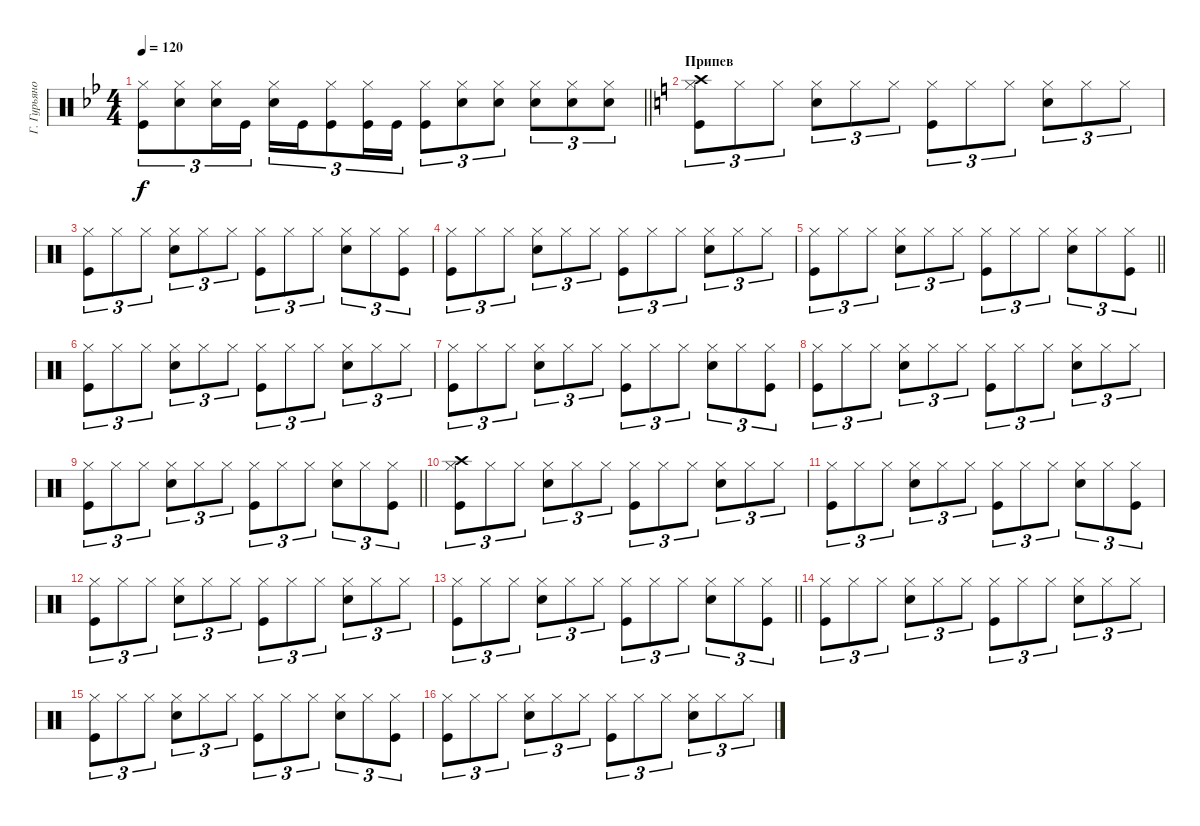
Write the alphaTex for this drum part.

\track ("Г. Гурьянов" "Г. Гурьяно") {instrument percussion}
\staff
\articulation defaults
\ts (4 4)
\tempo 120
\clef neutral
\barLineRight lightlight
\ks gminor
("Hi-Hat (closed)" "Kick (hit)").8{tu (3 2) dy f} ("Hi-Hat (closed)" "Snare (hit) 2").8{tu (3 2)} ("Hi-Hat (closed)" "Snare (hit) 2").16{tu (3 2)} "Kick (hit)".16{tu (3 2)} ("Hi-Hat (closed)" "Snare (hit) 2").16{tu (3 2)} "Kick (hit)".16{tu (3 2)} ("Hi-Hat (closed)" "Kick (hit)").8{tu (3 2)} ("Hi-Hat (closed)" "Kick (hit)").16{tu (3 2)} "Kick (hit)".16{tu (3 2)} ("Hi-Hat (closed)" "Kick (hit)").8{tu (3 2)} ("Hi-Hat (closed)" "Snare (hit) 2").8{tu (3 2)} ("Hi-Hat (closed)" "Snare (hit) 2").8{tu (3 2)} ("Hi-Hat (closed)" "Snare (hit) 2").8{tu (3 2)} ("Hi-Hat (closed)" "Snare (hit) 2").8{tu (3 2)} ("Hi-Hat (closed)" "Snare (hit) 2").8{tu (3 2)} |
\section ("" "Припев")
\ks c
("Hi-Hat (closed)" "Crash high (hit)" "Kick (hit)").8{tu (3 2)} "Hi-Hat (closed)".8{tu (3 2)} "Hi-Hat (closed)".8{tu (3 2)} ("Hi-Hat (closed)" "Snare (hit) 2").8{tu (3 2)} "Hi-Hat (closed)".8{tu (3 2)} "Hi-Hat (closed)".8{tu (3 2)} ("Hi-Hat (closed)" "Kick (hit)").8{tu (3 2)} "Hi-Hat (closed)".8{tu (3 2)} "Hi-Hat (closed)".8{tu (3 2)} ("Hi-Hat (closed)" "Snare (hit) 2").8{tu (3 2)} "Hi-Hat (closed)".8{tu (3 2)} "Hi-Hat (closed)".8{tu (3 2)} |
("Hi-Hat (closed)" "Kick (hit)").8{tu (3 2)} "Hi-Hat (closed)".8{tu (3 2)} "Hi-Hat (closed)".8{tu (3 2)} ("Hi-Hat (closed)" "Snare (hit) 2").8{tu (3 2)} "Hi-Hat (closed)".8{tu (3 2)} "Hi-Hat (closed)".8{tu (3 2)} ("Hi-Hat (closed)" "Kick (hit)").8{tu (3 2)} "Hi-Hat (closed)".8{tu (3 2)} "Hi-Hat (closed)".8{tu (3 2)} ("Hi-Hat (closed)" "Snare (hit) 2").8{tu (3 2)} "Hi-Hat (closed)".8{tu (3 2)} ("Hi-Hat (closed)" "Kick (hit)").8{tu (3 2)} |
("Hi-Hat (closed)" "Kick (hit)").8{tu (3 2)} "Hi-Hat (closed)".8{tu (3 2)} "Hi-Hat (closed)".8{tu (3 2)} ("Hi-Hat (closed)" "Snare (hit) 2").8{tu (3 2)} "Hi-Hat (closed)".8{tu (3 2)} "Hi-Hat (closed)".8{tu (3 2)} ("Hi-Hat (closed)" "Kick (hit)").8{tu (3 2)} "Hi-Hat (closed)".8{tu (3 2)} "Hi-Hat (closed)".8{tu (3 2)} ("Hi-Hat (closed)" "Snare (hit) 2").8{tu (3 2)} "Hi-Hat (closed)".8{tu (3 2)} "Hi-Hat (closed)".8{tu (3 2)} |
\barLineRight lightlight
("Hi-Hat (closed)" "Kick (hit)").8{tu (3 2)} "Hi-Hat (closed)".8{tu (3 2)} "Hi-Hat (closed)".8{tu (3 2)} ("Hi-Hat (closed)" "Snare (hit) 2").8{tu (3 2)} "Hi-Hat (closed)".8{tu (3 2)} "Hi-Hat (closed)".8{tu (3 2)} ("Hi-Hat (closed)" "Kick (hit)").8{tu (3 2)} "Hi-Hat (closed)".8{tu (3 2)} "Hi-Hat (closed)".8{tu (3 2)} ("Hi-Hat (closed)" "Snare (hit) 2").8{tu (3 2)} "Hi-Hat (closed)".8{tu (3 2)} ("Hi-Hat (closed)" "Kick (hit)").8{tu (3 2)} |
("Hi-Hat (closed)" "Kick (hit)").8{tu (3 2)} "Hi-Hat (closed)".8{tu (3 2)} "Hi-Hat (closed)".8{tu (3 2)} ("Hi-Hat (closed)" "Snare (hit) 2").8{tu (3 2)} "Hi-Hat (closed)".8{tu (3 2)} "Hi-Hat (closed)".8{tu (3 2)} ("Hi-Hat (closed)" "Kick (hit)").8{tu (3 2)} "Hi-Hat (closed)".8{tu (3 2)} "Hi-Hat (closed)".8{tu (3 2)} ("Hi-Hat (closed)" "Snare (hit) 2").8{tu (3 2)} "Hi-Hat (closed)".8{tu (3 2)} "Hi-Hat (closed)".8{tu (3 2)} |
("Hi-Hat (closed)" "Kick (hit)").8{tu (3 2)} "Hi-Hat (closed)".8{tu (3 2)} "Hi-Hat (closed)".8{tu (3 2)} ("Hi-Hat (closed)" "Snare (hit) 2").8{tu (3 2)} "Hi-Hat (closed)".8{tu (3 2)} "Hi-Hat (closed)".8{tu (3 2)} ("Hi-Hat (closed)" "Kick (hit)").8{tu (3 2)} "Hi-Hat (closed)".8{tu (3 2)} "Hi-Hat (closed)".8{tu (3 2)} ("Hi-Hat (closed)" "Snare (hit) 2").8{tu (3 2)} "Hi-Hat (closed)".8{tu (3 2)} ("Hi-Hat (closed)" "Kick (hit)").8{tu (3 2)} |
("Hi-Hat (closed)" "Kick (hit)").8{tu (3 2)} "Hi-Hat (closed)".8{tu (3 2)} "Hi-Hat (closed)".8{tu (3 2)} ("Hi-Hat (closed)" "Snare (hit) 2").8{tu (3 2)} "Hi-Hat (closed)".8{tu (3 2)} "Hi-Hat (closed)".8{tu (3 2)} ("Hi-Hat (closed)" "Kick (hit)").8{tu (3 2)} "Hi-Hat (closed)".8{tu (3 2)} "Hi-Hat (closed)".8{tu (3 2)} ("Hi-Hat (closed)" "Snare (hit) 2").8{tu (3 2)} "Hi-Hat (closed)".8{tu (3 2)} "Hi-Hat (closed)".8{tu (3 2)} |
\barLineRight lightlight
("Hi-Hat (closed)" "Kick (hit)").8{tu (3 2)} "Hi-Hat (closed)".8{tu (3 2)} "Hi-Hat (closed)".8{tu (3 2)} ("Hi-Hat (closed)" "Snare (hit) 2").8{tu (3 2)} "Hi-Hat (closed)".8{tu (3 2)} "Hi-Hat (closed)".8{tu (3 2)} ("Hi-Hat (closed)" "Kick (hit)").8{tu (3 2)} "Hi-Hat (closed)".8{tu (3 2)} "Hi-Hat (closed)".8{tu (3 2)} ("Hi-Hat (closed)" "Snare (hit) 2").8{tu (3 2)} "Hi-Hat (closed)".8{tu (3 2)} ("Hi-Hat (closed)" "Kick (hit)").8{tu (3 2)} |
("Hi-Hat (closed)" "Crash high (hit)" "Kick (hit)").8{tu (3 2)} "Hi-Hat (closed)".8{tu (3 2)} "Hi-Hat (closed)".8{tu (3 2)} ("Hi-Hat (closed)" "Snare (hit) 2").8{tu (3 2)} "Hi-Hat (closed)".8{tu (3 2)} "Hi-Hat (closed)".8{tu (3 2)} ("Hi-Hat (closed)" "Kick (hit)").8{tu (3 2)} "Hi-Hat (closed)".8{tu (3 2)} "Hi-Hat (closed)".8{tu (3 2)} ("Hi-Hat (closed)" "Snare (hit) 2").8{tu (3 2)} "Hi-Hat (closed)".8{tu (3 2)} "Hi-Hat (closed)".8{tu (3 2)} |
("Hi-Hat (closed)" "Kick (hit)").8{tu (3 2)} "Hi-Hat (closed)".8{tu (3 2)} "Hi-Hat (closed)".8{tu (3 2)} ("Hi-Hat (closed)" "Snare (hit) 2").8{tu (3 2)} "Hi-Hat (closed)".8{tu (3 2)} "Hi-Hat (closed)".8{tu (3 2)} ("Hi-Hat (closed)" "Kick (hit)").8{tu (3 2)} "Hi-Hat (closed)".8{tu (3 2)} "Hi-Hat (closed)".8{tu (3 2)} ("Hi-Hat (closed)" "Snare (hit) 2").8{tu (3 2)} "Hi-Hat (closed)".8{tu (3 2)} ("Hi-Hat (closed)" "Kick (hit)").8{tu (3 2)} |
("Hi-Hat (closed)" "Kick (hit)").8{tu (3 2)} "Hi-Hat (closed)".8{tu (3 2)} "Hi-Hat (closed)".8{tu (3 2)} ("Hi-Hat (closed)" "Snare (hit) 2").8{tu (3 2)} "Hi-Hat (closed)".8{tu (3 2)} "Hi-Hat (closed)".8{tu (3 2)} ("Hi-Hat (closed)" "Kick (hit)").8{tu (3 2)} "Hi-Hat (closed)".8{tu (3 2)} "Hi-Hat (closed)".8{tu (3 2)} ("Hi-Hat (closed)" "Snare (hit) 2").8{tu (3 2)} "Hi-Hat (closed)".8{tu (3 2)} "Hi-Hat (closed)".8{tu (3 2)} |
\barLineRight lightlight
("Hi-Hat (closed)" "Kick (hit)").8{tu (3 2)} "Hi-Hat (closed)".8{tu (3 2)} "Hi-Hat (closed)".8{tu (3 2)} ("Hi-Hat (closed)" "Snare (hit) 2").8{tu (3 2)} "Hi-Hat (closed)".8{tu (3 2)} "Hi-Hat (closed)".8{tu (3 2)} ("Hi-Hat (closed)" "Kick (hit)").8{tu (3 2)} "Hi-Hat (closed)".8{tu (3 2)} "Hi-Hat (closed)".8{tu (3 2)} ("Hi-Hat (closed)" "Snare (hit) 2").8{tu (3 2)} "Hi-Hat (closed)".8{tu (3 2)} ("Hi-Hat (closed)" "Kick (hit)").8{tu (3 2)} |
("Hi-Hat (closed)" "Kick (hit)").8{tu (3 2)} "Hi-Hat (closed)".8{tu (3 2)} "Hi-Hat (closed)".8{tu (3 2)} ("Hi-Hat (closed)" "Snare (hit) 2").8{tu (3 2)} "Hi-Hat (closed)".8{tu (3 2)} "Hi-Hat (closed)".8{tu (3 2)} ("Hi-Hat (closed)" "Kick (hit)").8{tu (3 2)} "Hi-Hat (closed)".8{tu (3 2)} "Hi-Hat (closed)".8{tu (3 2)} ("Hi-Hat (closed)" "Snare (hit) 2").8{tu (3 2)} "Hi-Hat (closed)".8{tu (3 2)} "Hi-Hat (closed)".8{tu (3 2)} |
("Hi-Hat (closed)" "Kick (hit)").8{tu (3 2)} "Hi-Hat (closed)".8{tu (3 2)} "Hi-Hat (closed)".8{tu (3 2)} ("Hi-Hat (closed)" "Snare (hit) 2").8{tu (3 2)} "Hi-Hat (closed)".8{tu (3 2)} "Hi-Hat (closed)".8{tu (3 2)} ("Hi-Hat (closed)" "Kick (hit)").8{tu (3 2)} "Hi-Hat (closed)".8{tu (3 2)} "Hi-Hat (closed)".8{tu (3 2)} ("Hi-Hat (closed)" "Snare (hit) 2").8{tu (3 2)} "Hi-Hat (closed)".8{tu (3 2)} ("Hi-Hat (closed)" "Kick (hit)").8{tu (3 2)} |
("Hi-Hat (closed)" "Kick (hit)").8{tu (3 2)} "Hi-Hat (closed)".8{tu (3 2)} "Hi-Hat (closed)".8{tu (3 2)} ("Hi-Hat (closed)" "Snare (hit) 2").8{tu (3 2)} "Hi-Hat (closed)".8{tu (3 2)} "Hi-Hat (closed)".8{tu (3 2)} ("Hi-Hat (closed)" "Kick (hit)").8{tu (3 2)} "Hi-Hat (closed)".8{tu (3 2)} "Hi-Hat (closed)".8{tu (3 2)} ("Hi-Hat (closed)" "Snare (hit) 2").8{tu (3 2)} "Hi-Hat (closed)".8{tu (3 2)} "Hi-Hat (closed)".8{tu (3 2)}
